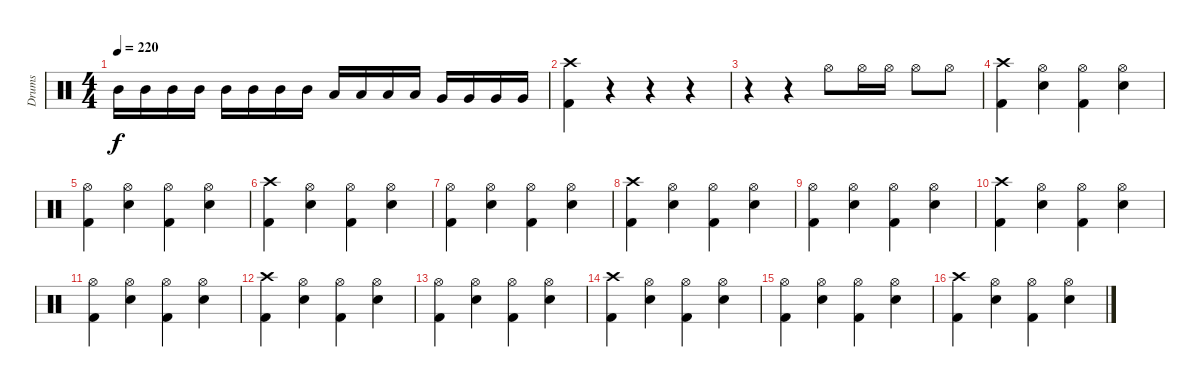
\track ("Drums" "Drums") {instrument percussion}
\staff {score}
\articulation defaults
\ts (4 4)
\tempo 220
\clef neutral
\ks c "Mid Tom (hit)".16{dy f} "Mid Tom (hit)".16 "Mid Tom (hit)".16 "Mid Tom (hit)".16 "Mid Tom (hit)".16 "Mid Tom (hit)".16 "Mid Tom (hit)".16 "Mid Tom (hit)".16 "Low Tom (hit)".16 "Low Tom (hit)".16 "Low Tom (hit)".16 "Low Tom (hit)".16 "Very Low Tom (hit)".16 "Very Low Tom (hit)".16 "Very Low Tom (hit)".16 "Very Low Tom (hit)".16
|
("Crash high (hit)" "Kick (hit) 2").4 r.4 r.4 r.4 |
r.4 r.4 "Hi-Hat (open)".8 "Hi-Hat (open)".16 "Hi-Hat (open)".16 "Hi-Hat (open)".8 "Hi-Hat (open)".8 |
("Crash high (hit)" "Kick (hit) 2").4 ("Hi-Hat (open)" "Snare (hit) 2").4 ("Hi-Hat (open)" "Kick (hit) 2").4 ("Hi-Hat (open)" "Snare (hit) 2").4 |
("Hi-Hat (open)" "Kick (hit) 2").4 ("Hi-Hat (open)" "Snare (hit) 2").4 ("Hi-Hat (open)" "Kick (hit) 2").4 ("Hi-Hat (open)" "Snare (hit) 2").4 |
("Crash high (hit)" "Kick (hit) 2").4 ("Hi-Hat (open)" "Snare (hit) 2").4 ("Hi-Hat (open)" "Kick (hit) 2").4 ("Hi-Hat (open)" "Snare (hit) 2").4 |
("Hi-Hat (open)" "Kick (hit) 2").4 ("Hi-Hat (open)" "Snare (hit) 2").4 ("Hi-Hat (open)" "Kick (hit) 2").4 ("Hi-Hat (open)" "Snare (hit) 2").4 |
("Crash high (hit)" "Kick (hit) 2").4 ("Hi-Hat (open)" "Snare (hit) 2").4 ("Hi-Hat (open)" "Kick (hit) 2").4 ("Hi-Hat (open)" "Snare (hit) 2").4 |
("Hi-Hat (open)" "Kick (hit) 2").4 ("Hi-Hat (open)" "Snare (hit) 2").4 ("Hi-Hat (open)" "Kick (hit) 2").4 ("Hi-Hat (open)" "Snare (hit) 2").4 |
("Crash high (hit)" "Kick (hit) 2").4 ("Hi-Hat (open)" "Snare (hit) 2").4 ("Hi-Hat (open)" "Kick (hit) 2").4 ("Hi-Hat (open)" "Snare (hit) 2").4 |
("Hi-Hat (open)" "Kick (hit) 2").4 ("Hi-Hat (open)" "Snare (hit) 2").4 ("Hi-Hat (open)" "Kick (hit) 2").4 ("Hi-Hat (open)" "Snare (hit) 2").4 |
("Crash high (hit)" "Kick (hit) 2").4 ("Hi-Hat (open)" "Snare (hit) 2").4 ("Hi-Hat (open)" "Kick (hit) 2").4 ("Hi-Hat (open)" "Snare (hit) 2").4 |
("Hi-Hat (open)" "Kick (hit) 2").4 ("Hi-Hat (open)" "Snare (hit) 2").4 ("Hi-Hat (open)" "Kick (hit) 2").4 ("Hi-Hat (open)" "Snare (hit) 2").4 |
("Crash high (hit)" "Kick (hit) 2").4 ("Hi-Hat (open)" "Snare (hit) 2").4 ("Hi-Hat (open)" "Kick (hit) 2").4 ("Hi-Hat (open)" "Snare (hit) 2").4 |
("Hi-Hat (open)" "Kick (hit) 2").4 ("Hi-Hat (open)" "Snare (hit) 2").4 ("Hi-Hat (open)" "Kick (hit) 2").4 ("Hi-Hat (open)" "Snare (hit) 2").4 |
("Crash high (hit)" "Kick (hit) 2").4 ("Hi-Hat (open)" "Snare (hit) 2").4 ("Hi-Hat (open)" "Kick (hit) 2").4 ("Hi-Hat (open)" "Snare (hit) 2").4
